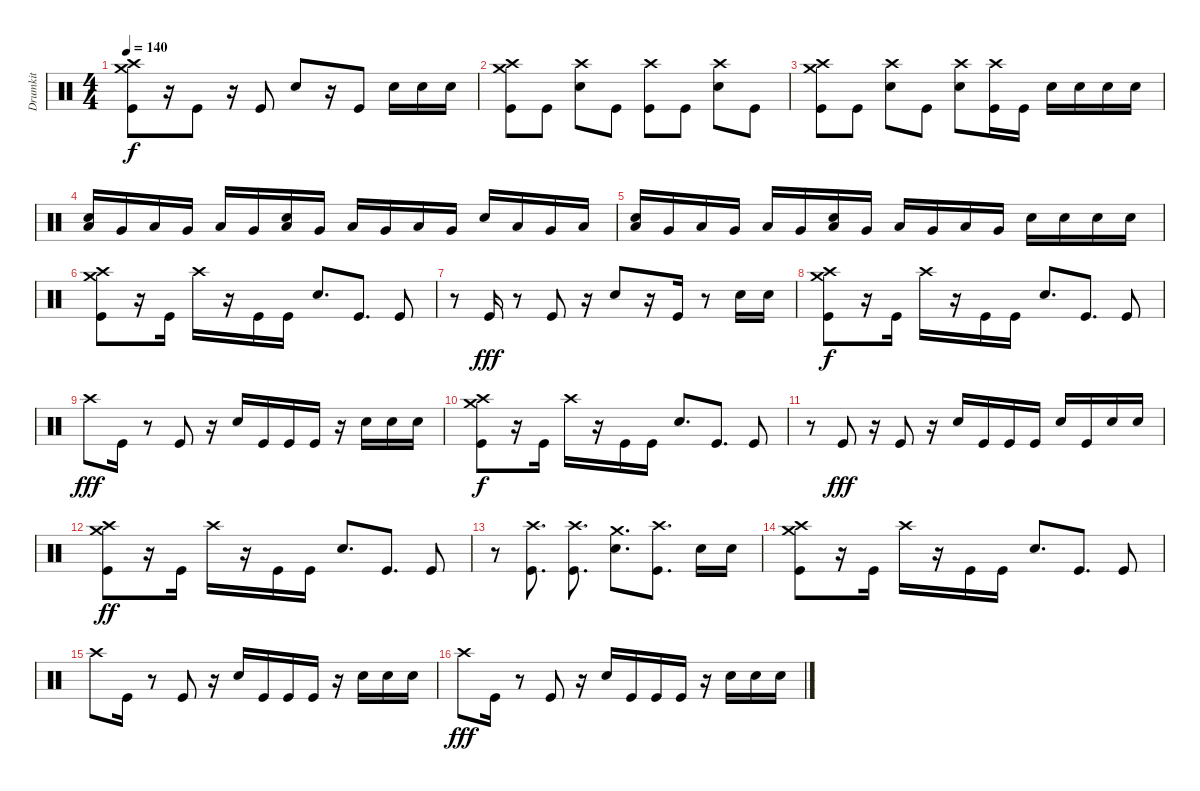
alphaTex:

\track ("Drumkit" "Drumkit") {instrument percussion}
\staff {score}
\articulation defaults
\ts (4 4)
\tempo 140
\clef neutral
\ks c
("Crash high (hit)" "Crash medium (hit)" "Kick (hit)").8{dy f} r.16 "Kick (hit)".8 r.16 "Kick (hit)".8 "Snare (hit) 2".8 r.16 "Kick (hit)".8 "Snare (hit) 2".16 "Snare (hit) 2".16 "Snare (hit) 2".16 |
("Crash high (hit)" "Crash medium (hit)" "Kick (hit)").8 "Kick (hit)".8 ("Snare (hit) 2" "Crash high (hit)").8 "Kick (hit)".8 ("Kick (hit)" "Crash high (hit)").8 "Kick (hit)".8 ("Snare (hit) 2" "Crash high (hit)").8 "Kick (hit)".8 |
("Crash high (hit)" "Crash medium (hit)" "Kick (hit)").8 "Kick (hit)".8 ("Snare (hit) 2" "Crash high (hit)").8 "Kick (hit)".8 ("Crash high (hit)" "Snare (hit) 2").8 ("Crash high (hit)" "Kick (hit)").16 "Kick (hit)".16 "Snare (hit) 2".16 "Snare (hit) 2".16 "Snare (hit) 2".16 "Snare (hit) 2".16 |
("Snare (hit) 2" "Low Tom (hit)").16 "Very Low Tom (hit)".16 "Low Tom (hit)".16 "Very Low Tom (hit)".16 "Low Floor Tom (hit)".16 "Very Low Tom (hit)".16 ("Snare (hit) 2" "Low Tom (hit)").16 "Very Low Tom (hit)".16 "Low Tom (hit)".16 "Very Low Tom (hit)".16 "Low Floor Tom (hit)".16 "Very Low Tom (hit)".16 "Snare (hit) 2".16 "Low Tom (hit)".16 "Very Low Tom (hit)".16 "Low Tom (hit)".16 |
("Snare (hit) 2" "Low Tom (hit)").16 "Very Low Tom (hit)".16 "Low Tom (hit)".16 "Very Low Tom (hit)".16 "Low Floor Tom (hit)".16 "Very Low Tom (hit)".16 ("Snare (hit) 2" "Low Tom (hit)").16 "Very Low Tom (hit)".16 "Low Tom (hit)".16 "Very Low Tom (hit)".16 "Low Floor Tom (hit)".16 "Very Low Tom (hit)".16 "Snare (hit) 2".16 "Snare (hit) 2".16 "Snare (hit) 2".16 "Snare (hit) 2".16 |
("Crash high (hit)" "Crash medium (hit)" "Kick (hit)").8 r.16 "Kick (hit)".16 "Crash high (hit)".16 r.16 "Kick (hit)".16 "Kick (hit)".16 "Snare (hit) 2".8{d} "Kick (hit)".8{d} "Kick (hit)".8 |
r.8 "Kick (hit)".16{dy fff} r.8 "Kick (hit)".8 r.16 "Snare (hit) 2".8 r.16 "Kick (hit)".16 r.8 "Snare (hit) 2".16 "Snare (hit) 2".16 |
("Crash high (hit)" "Crash medium (hit)" "Kick (hit)").8{dy f} r.16 "Kick (hit)".16 "Crash high (hit)".16 r.16 "Kick (hit)".16 "Kick (hit)".16 "Snare (hit) 2".8{d} "Kick (hit)".8{d} "Kick (hit)".8 |
"Crash high (hit)".8{dy fff} "Kick (hit)".16 r.8 "Kick (hit)".8 r.16 "Snare (hit) 2".16 "Kick (hit)".16 "Kick (hit)".16 "Kick (hit)".16 r.16 "Snare (hit) 2".16 "Snare (hit) 2".16 "Snare (hit) 2".16 |
("Crash high (hit)" "Crash medium (hit)" "Kick (hit)").8{dy f} r.16 "Kick (hit)".16 "Crash high (hit)".16 r.16 "Kick (hit)".16 "Kick (hit)".16 "Snare (hit) 2".8{d} "Kick (hit)".8{d} "Kick (hit)".8 |
r.8 "Kick (hit)".8{dy fff} r.16 "Kick (hit)".8 r.16 "Snare (hit) 2".16 "Kick (hit)".16 "Kick (hit)".16 "Kick (hit)".16 "Snare (hit) 2".16 "Kick (hit)".16 "Snare (hit) 2".16 "Snare (hit) 2".16 |
("Crash high (hit)" "Crash medium (hit)" "Kick (hit)").8{dy ff} r.16 "Kick (hit)".16 "Crash high (hit)".16 r.16 "Kick (hit)".16 "Kick (hit)".16 "Snare (hit) 2".8{d} "Kick (hit)".8{d} "Kick (hit)".8 |
r.8 ("Kick (hit)" "Crash high (hit)").8{d} ("Kick (hit)" "Crash high (hit)").8{d} ("Snare (hit) 2" "Crash medium (hit)").8{d} ("Kick (hit)" "Crash high (hit)").8{d} "Snare (hit) 2".16 "Snare (hit) 2".16 |
("Crash high (hit)" "Crash medium (hit)" "Kick (hit)").8 r.16 "Kick (hit)".16 "Crash high (hit)".16 r.16 "Kick (hit)".16 "Kick (hit)".16 "Snare (hit) 2".8{d} "Kick (hit)".8{d} "Kick (hit)".8 |
"Crash high (hit)".8 "Kick (hit)".16 r.8 "Kick (hit)".8 r.16 "Snare (hit) 2".16 "Kick (hit)".16 "Kick (hit)".16 "Kick (hit)".16 r.16 "Snare (hit) 2".16 "Snare (hit) 2".16 "Snare (hit) 2".16 |
"Crash high (hit)".8{dy fff} "Kick (hit)".16 r.8 "Kick (hit)".8 r.16 "Snare (hit) 2".16 "Kick (hit)".16 "Kick (hit)".16 "Kick (hit)".16 r.16 "Snare (hit) 2".16 "Snare (hit) 2".16 "Snare (hit) 2".16
